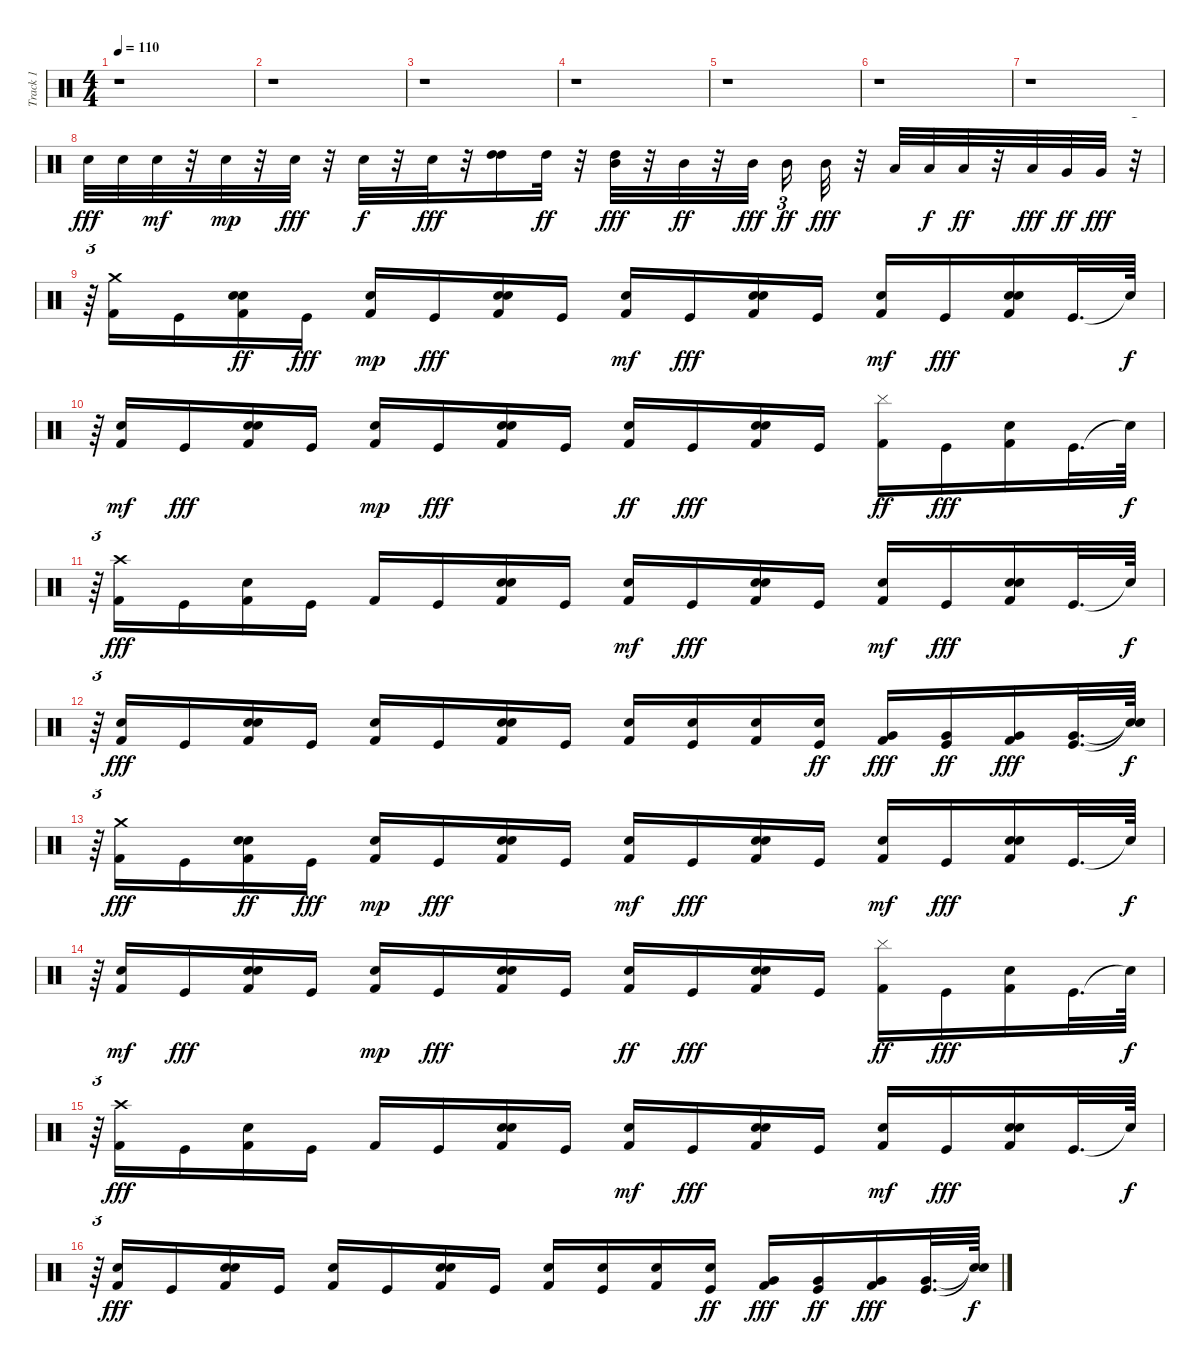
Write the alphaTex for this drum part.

\track ("Track 1" "Track 1") {mute instrument percussion}
\staff {score}
\articulation defaults
\ts (4 4)
\tempo 110
\clef neutral
\ks c
r.1{dy fff} |
r.1 |
r.1 |
r.1 |
r.1 |
r.1 |
r.1 |
"Snare (hit) 2".32 "Snare (hit) 2".32 "Snare (hit) 2".32{dy mf} r.32 "Snare (hit) 2".32{dy mp} r.32 "Snare (hit) 2".32{dy fff} r.32 "Snare (hit) 2".32{dy f} r.32 "Snare (hit) 2".32{dy fff} r.32 ("High Tom (hit)" "High Tom (hit)").16 "High Tom (hit)".32{dy ff} r.32 ("High Tom (hit)" "Mid Tom (hit)").32{dy fff} r.32 "Mid Tom (hit)".32{dy ff} r.32 "Mid Tom (hit)".32{dy fff beam splitsecondary} "Mid Tom (hit)".16{tu (3 2) dy ff} "Mid Tom (hit)".32{dy fff} r.32 "Low Tom (hit)".32 "Low Tom (hit)".32{dy f} "Low Tom (hit)".32{dy ff} r.32 "Low Tom (hit)".32{dy fff} "Very Low Tom (hit)".32{dy ff} "Very Low Tom (hit)".32{dy fff} r.32{tu (3 2)} |
r.64{tu (3 2)} ("Kick (hit) 2" "Crash medium (hit)").16 "Kick (hit)".16 ("Kick (hit) 2" "Snare (hit) 2" "Snare (hit)").16{dy ff} "Kick (hit)".16{dy fff} ("Kick (hit) 2" "Snare (hit)").16{dy mp} "Kick (hit)".16{dy fff} ("Kick (hit) 2" "Snare (hit) 2" "Snare (hit)").16 "Kick (hit)".16 ("Kick (hit) 2" "Snare (hit)").16{dy mf} "Kick (hit)".16{dy fff} ("Kick (hit) 2" "Snare (hit) 2" "Snare (hit)").16 "Kick (hit)".16 ("Kick (hit) 2" "Snare (hit)").16{dy mf} "Kick (hit)".16{dy fff} ("Kick (hit) 2" "Snare (hit) 2" "Snare (hit)").16 "Kick (hit)".32{d} "Snare (hit)"{t}.64{dy f} |
r.64{tu (3 2)} ("Kick (hit) 2" "Snare (hit)").16{dy mf} "Kick (hit)".16{dy fff} ("Kick (hit) 2" "Snare (hit) 2" "Snare (hit)").16 "Kick (hit)".16 ("Kick (hit) 2" "Snare (hit)").16{dy mp} "Kick (hit)".16{dy fff} ("Kick (hit) 2" "Snare (hit)" "Snare (hit) 2").16 "Kick (hit)".16 ("Kick (hit) 2" "Snare (hit)").16{dy ff} "Kick (hit)".16{dy fff} ("Kick (hit) 2" "Snare (hit)" "Snare (hit) 2").16 "Kick (hit)".16 ("Kick (hit) 2" "Cymbal (hit)").16{dy ff} "Kick (hit)".16{dy fff} ("Kick (hit) 2" "Snare (hit) 2").16 "Kick (hit)".32{d} "Snare (hit)"{t}.64{dy f} |
r.64{tu (3 2)} ("Kick (hit) 2" "Crash high (hit)").16{dy fff} "Kick (hit)".16 ("Kick (hit) 2" "Snare (hit) 2").16 "Kick (hit)".16 "Kick (hit) 2".16 "Kick (hit)".16 ("Kick (hit) 2" "Snare (hit)" "Snare (hit) 2").16 "Kick (hit)".16 ("Kick (hit) 2" "Snare (hit)").16{dy mf} "Kick (hit)".16{dy fff} ("Kick (hit) 2" "Snare (hit) 2" "Snare (hit)").16 "Kick (hit)".16 ("Kick (hit) 2" "Snare (hit)").16{dy mf} "Kick (hit)".16{dy fff} ("Kick (hit) 2" "Snare (hit) 2" "Snare (hit)").16 "Kick (hit)".32{d} "Snare (hit)"{t}.64{dy f} |
r.64{tu (3 2)} ("Kick (hit) 2" "Snare (hit)").16{dy fff} "Kick (hit)".16 ("Kick (hit) 2" "Snare (hit) 2" "Snare (hit)").16 "Kick (hit)".16 ("Kick (hit) 2" "Snare (hit)").16 "Kick (hit)".16 ("Snare (hit)" "Kick (hit) 2" "Snare (hit) 2").16 "Kick (hit)".16 ("Kick (hit) 2" "Snare (hit) 2").16 ("Kick (hit)" "Snare (hit) 2").16 ("Kick (hit) 2" "Snare (hit) 2").16 ("Kick (hit)" "Snare (hit) 2").16{dy ff} ("Kick (hit) 2" "Very Low Tom (hit)").16{dy fff} ("Kick (hit)" "Very Low Tom (hit)").16{dy ff} ("Kick (hit) 2" "Very Low Tom (hit)").16{dy fff} ("Kick (hit)" "Very Low Tom (hit)").32{d} ("Snare (hit)"{t} "Snare (hit)"{t}).64{dy f} |
r.64{tu (3 2)} ("Kick (hit) 2" "Crash medium (hit)").16{dy fff} "Kick (hit)".16 ("Kick (hit) 2" "Snare (hit) 2" "Snare (hit)").16{dy ff} "Kick (hit)".16{dy fff} ("Kick (hit) 2" "Snare (hit)").16{dy mp} "Kick (hit)".16{dy fff} ("Kick (hit) 2" "Snare (hit) 2" "Snare (hit)").16 "Kick (hit)".16 ("Kick (hit) 2" "Snare (hit)").16{dy mf} "Kick (hit)".16{dy fff} ("Kick (hit) 2" "Snare (hit) 2" "Snare (hit)").16 "Kick (hit)".16 ("Kick (hit) 2" "Snare (hit)").16{dy mf} "Kick (hit)".16{dy fff} ("Kick (hit) 2" "Snare (hit) 2" "Snare (hit)").16 "Kick (hit)".32{d} "Snare (hit)"{t}.64{dy f} |
r.64{tu (3 2)} ("Kick (hit) 2" "Snare (hit)").16{dy mf} "Kick (hit)".16{dy fff} ("Kick (hit) 2" "Snare (hit) 2" "Snare (hit)").16 "Kick (hit)".16 ("Kick (hit) 2" "Snare (hit)").16{dy mp} "Kick (hit)".16{dy fff} ("Kick (hit) 2" "Snare (hit)" "Snare (hit) 2").16 "Kick (hit)".16 ("Kick (hit) 2" "Snare (hit)").16{dy ff} "Kick (hit)".16{dy fff} ("Kick (hit) 2" "Snare (hit)" "Snare (hit) 2").16 "Kick (hit)".16 ("Kick (hit) 2" "Cymbal (hit)").16{dy ff} "Kick (hit)".16{dy fff} ("Kick (hit) 2" "Snare (hit) 2").16 "Kick (hit)".32{d} "Snare (hit)"{t}.64{dy f} |
r.64{tu (3 2)} ("Kick (hit) 2" "Crash high (hit)").16{dy fff} "Kick (hit)".16 ("Kick (hit) 2" "Snare (hit) 2").16 "Kick (hit)".16 "Kick (hit) 2".16 "Kick (hit)".16 ("Kick (hit) 2" "Snare (hit)" "Snare (hit) 2").16 "Kick (hit)".16 ("Kick (hit) 2" "Snare (hit)").16{dy mf} "Kick (hit)".16{dy fff} ("Kick (hit) 2" "Snare (hit) 2" "Snare (hit)").16 "Kick (hit)".16 ("Kick (hit) 2" "Snare (hit)").16{dy mf} "Kick (hit)".16{dy fff} ("Kick (hit) 2" "Snare (hit) 2" "Snare (hit)").16 "Kick (hit)".32{d} "Snare (hit)"{t}.64{dy f} |
r.64{tu (3 2)} ("Kick (hit) 2" "Snare (hit)").16{dy fff} "Kick (hit)".16 ("Kick (hit) 2" "Snare (hit) 2" "Snare (hit)").16 "Kick (hit)".16 ("Kick (hit) 2" "Snare (hit)").16 "Kick (hit)".16 ("Snare (hit)" "Kick (hit) 2" "Snare (hit) 2").16 "Kick (hit)".16 ("Kick (hit) 2" "Snare (hit) 2").16 ("Kick (hit)" "Snare (hit) 2").16 ("Kick (hit) 2" "Snare (hit) 2").16 ("Kick (hit)" "Snare (hit) 2").16{dy ff} ("Kick (hit) 2" "Very Low Tom (hit)").16{dy fff} ("Kick (hit)" "Very Low Tom (hit)").16{dy ff} ("Kick (hit) 2" "Very Low Tom (hit)").16{dy fff} ("Kick (hit)" "Very Low Tom (hit)").32{d} ("Snare (hit)"{t} "Snare (hit)"{t}).64{dy f}
